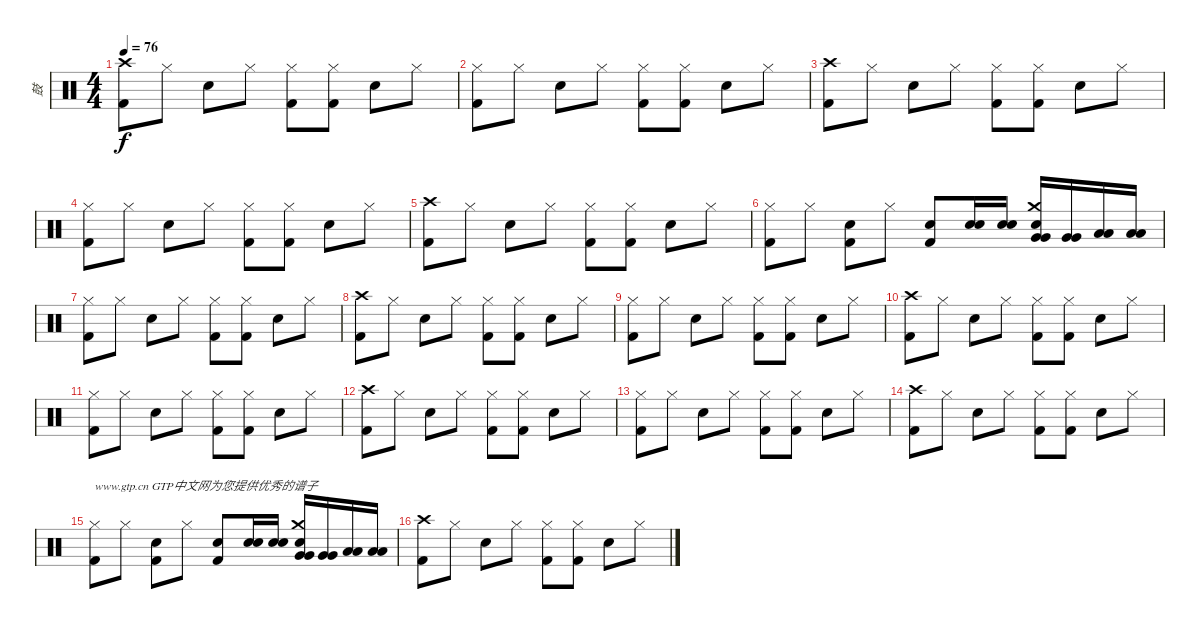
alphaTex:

\track ("鼓" "鼓") {instrument percussion}
\staff {score}
\articulation defaults
\ts (4 4)
\tempo 76
\clef neutral
\ks c
("Crash high (hit)" "Kick (hit) 2").8{dy f} "Hi-Hat (closed)".8 "Snare (hit) 2".8 "Hi-Hat (closed)".8 ("Hi-Hat (closed)" "Kick (hit) 2").8 ("Hi-Hat (closed)" "Kick (hit) 2").8 "Snare (hit) 2".8 "Hi-Hat (closed)".8 |
("Hi-Hat (closed)" "Kick (hit) 2").8 "Hi-Hat (closed)".8 "Snare (hit) 2".8 "Hi-Hat (closed)".8 ("Hi-Hat (closed)" "Kick (hit) 2").8 ("Hi-Hat (closed)" "Kick (hit) 2").8 "Snare (hit) 2".8 "Hi-Hat (closed)".8 |
("Crash high (hit)" "Kick (hit) 2").8 "Hi-Hat (closed)".8 "Snare (hit) 2".8 "Hi-Hat (closed)".8 ("Hi-Hat (closed)" "Kick (hit) 2").8 ("Hi-Hat (closed)" "Kick (hit) 2").8 "Snare (hit) 2".8 "Hi-Hat (closed)".8 |
("Hi-Hat (closed)" "Kick (hit) 2").8 "Hi-Hat (closed)".8 "Snare (hit) 2".8 "Hi-Hat (closed)".8 ("Hi-Hat (closed)" "Kick (hit) 2").8 ("Hi-Hat (closed)" "Kick (hit) 2").8 "Snare (hit) 2".8 "Hi-Hat (closed)".8 |
("Crash high (hit)" "Kick (hit) 2").8 "Hi-Hat (closed)".8 "Snare (hit) 2".8 "Hi-Hat (closed)".8 ("Hi-Hat (closed)" "Kick (hit) 2").8 ("Hi-Hat (closed)" "Kick (hit) 2").8 "Snare (hit) 2".8 "Hi-Hat (closed)".8 |
("Hi-Hat (closed)" "Kick (hit) 2").8 "Hi-Hat (closed)".8 ("Snare (hit) 2" "Kick (hit) 2").8 "Hi-Hat (closed)".8 ("Kick (hit) 2" "Snare (hit) 2").8 ("Electric Snare (hit)" "Electric Snare (hit)").16 ("Electric Snare (hit)" "Electric Snare (hit)").16 ("Crash medium (hit)" "Very Low Tom (hit)" "Very Low Tom (hit)" "Snare (hit) 2").16 ("Very Low Tom (hit)" "Very Low Tom (hit)").16 ("Low Tom (hit)" "Low Tom (hit)").16 ("Low Tom (hit)" "Low Tom (hit)").16 |
("Hi-Hat (closed)" "Kick (hit) 2").8 "Hi-Hat (closed)".8 "Snare (hit) 2".8 "Hi-Hat (closed)".8 ("Hi-Hat (closed)" "Kick (hit) 2").8 ("Hi-Hat (closed)" "Kick (hit) 2").8 "Snare (hit) 2".8 "Hi-Hat (closed)".8 |
("Crash high (hit)" "Kick (hit) 2").8 "Hi-Hat (closed)".8 "Snare (hit) 2".8 "Hi-Hat (closed)".8 ("Hi-Hat (closed)" "Kick (hit) 2").8 ("Hi-Hat (closed)" "Kick (hit) 2").8 "Snare (hit) 2".8 "Hi-Hat (closed)".8 |
("Hi-Hat (closed)" "Kick (hit) 2").8 "Hi-Hat (closed)".8 "Snare (hit) 2".8 "Hi-Hat (closed)".8 ("Hi-Hat (closed)" "Kick (hit) 2").8 ("Hi-Hat (closed)" "Kick (hit) 2").8 "Snare (hit) 2".8 "Hi-Hat (closed)".8 |
("Crash high (hit)" "Kick (hit) 2").8 "Hi-Hat (closed)".8 "Snare (hit) 2".8 "Hi-Hat (closed)".8 ("Hi-Hat (closed)" "Kick (hit) 2").8 ("Hi-Hat (closed)" "Kick (hit) 2").8 "Snare (hit) 2".8 "Hi-Hat (closed)".8 |
("Hi-Hat (closed)" "Kick (hit) 2").8 "Hi-Hat (closed)".8 "Snare (hit) 2".8 "Hi-Hat (closed)".8 ("Hi-Hat (closed)" "Kick (hit) 2").8 ("Hi-Hat (closed)" "Kick (hit) 2").8 "Snare (hit) 2".8 "Hi-Hat (closed)".8 |
("Crash high (hit)" "Kick (hit) 2").8 "Hi-Hat (closed)".8 "Snare (hit) 2".8 "Hi-Hat (closed)".8 ("Hi-Hat (closed)" "Kick (hit) 2").8 ("Hi-Hat (closed)" "Kick (hit) 2").8 "Snare (hit) 2".8 "Hi-Hat (closed)".8 |
("Hi-Hat (closed)" "Kick (hit) 2").8 "Hi-Hat (closed)".8 "Snare (hit) 2".8 "Hi-Hat (closed)".8 ("Hi-Hat (closed)" "Kick (hit) 2").8 ("Hi-Hat (closed)" "Kick (hit) 2").8 "Snare (hit) 2".8 "Hi-Hat (closed)".8 |
("Crash high (hit)" "Kick (hit) 2").8 "Hi-Hat (closed)".8 "Snare (hit) 2".8 "Hi-Hat (closed)".8 ("Hi-Hat (closed)" "Kick (hit) 2").8 ("Hi-Hat (closed)" "Kick (hit) 2").8 "Snare (hit) 2".8 "Hi-Hat (closed)".8 |
("Hi-Hat (closed)" "Kick (hit) 2").8{txt "www.gtp.cn GTP中文网为您提供优秀的谱子"} "Hi-Hat (closed)".8 ("Snare (hit) 2" "Kick (hit) 2").8 "Hi-Hat (closed)".8 ("Kick (hit) 2" "Snare (hit) 2").8 ("Electric Snare (hit)" "Electric Snare (hit)").16 ("Electric Snare (hit)" "Electric Snare (hit)").16 ("Crash medium (hit)" "Very Low Tom (hit)" "Very Low Tom (hit)" "Snare (hit) 2").16 ("Very Low Tom (hit)" "Very Low Tom (hit)").16 ("Low Tom (hit)" "Low Tom (hit)").16 ("Low Tom (hit)" "Low Tom (hit)").16 |
("Crash high (hit)" "Kick (hit) 2").8 "Hi-Hat (closed)".8 "Snare (hit) 2".8 "Hi-Hat (closed)".8 ("Hi-Hat (closed)" "Kick (hit) 2").8 ("Hi-Hat (closed)" "Kick (hit) 2").8 "Snare (hit) 2".8 "Hi-Hat (closed)".8
